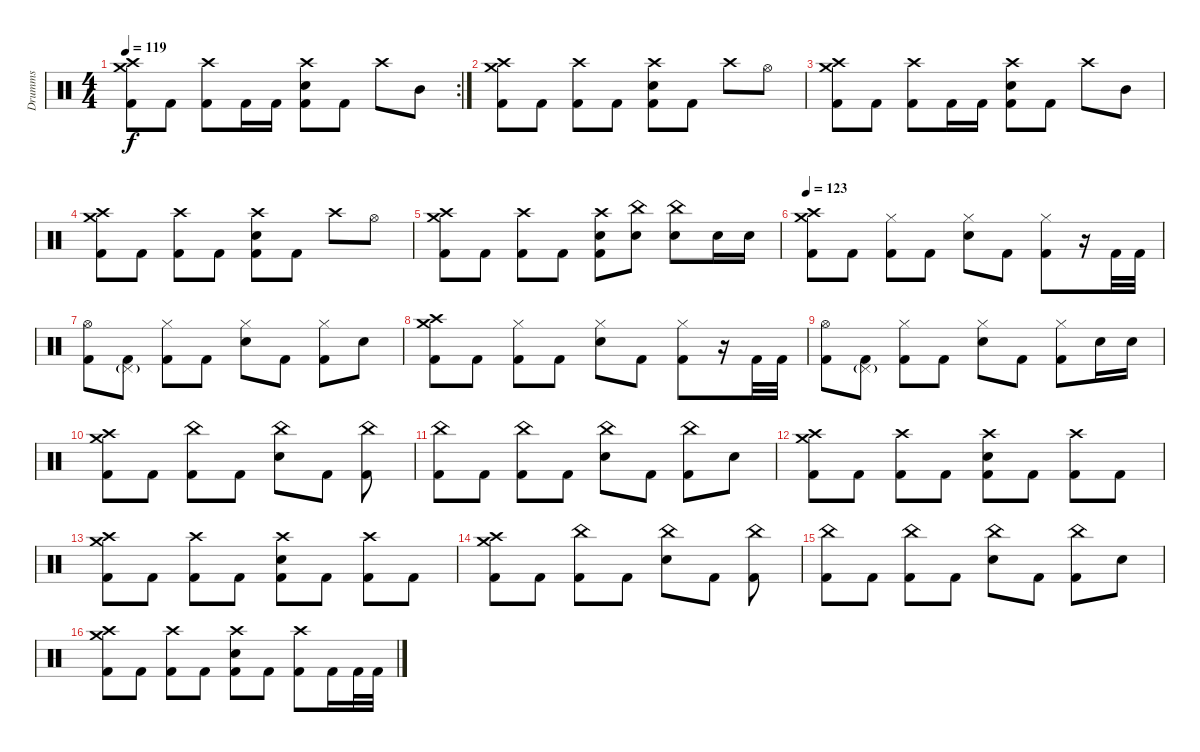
\track ("Drumms" "Drumms") {instrument percussion}
\staff {score}
\articulation defaults
\rc 2
\ts (4 4)
\tempo 119
\clef neutral
\ks c
("Crash high (hit)" "Crash medium (hit)" "Kick (hit) 2").8{dy f} "Kick (hit) 2".8 ("Crash high (hit)" "Kick (hit) 2").8 "Kick (hit) 2".16 "Kick (hit) 2".16 ("Crash high (hit)" "Electric Snare (hit)" "Kick (hit) 2").8 "Kick (hit) 2".8 "Crash high (hit)".8 "Mid Tom (hit)".8 |
("Crash high (hit)" "Crash medium (hit)" "Kick (hit) 2").8 "Kick (hit) 2".8 ("Crash high (hit)" "Kick (hit) 2").8 "Kick (hit) 2".8 ("Crash high (hit)" "Electric Snare (hit)" "Kick (hit) 2").8 "Kick (hit) 2".8 "Crash high (hit)".8 "Hi-Hat (open)".8 |
("Crash high (hit)" "Crash medium (hit)" "Kick (hit) 2").8 "Kick (hit) 2".8 ("Crash high (hit)" "Kick (hit) 2").8 "Kick (hit) 2".16 "Kick (hit) 2".16 ("Crash high (hit)" "Electric Snare (hit)" "Kick (hit) 2").8 "Kick (hit) 2".8 "Crash high (hit)".8 "Mid Tom (hit)".8 |
("Crash high (hit)" "Crash medium (hit)" "Kick (hit) 2").8 "Kick (hit) 2".8 ("Crash high (hit)" "Kick (hit) 2").8 "Kick (hit) 2".8 ("Crash high (hit)" "Electric Snare (hit)" "Kick (hit) 2").8 "Kick (hit) 2".8 "Crash high (hit)".8 "Hi-Hat (open)".8 |
("Crash high (hit)" "Crash medium (hit)" "Kick (hit) 2").8 "Kick (hit) 2".8 ("Crash high (hit)" "Kick (hit) 2").8 "Kick (hit) 2".8 ("Crash high (hit)" "Electric Snare (hit)" "Kick (hit) 2").8 ("China (hit)" "Electric Snare (hit)").8 ("China (hit)" "Electric Snare (hit)").8 "Electric Snare (hit)".16 "Electric Snare (hit)".16 |
\tempo 123
("Crash high (hit)" "Crash medium (hit)" "Kick (hit) 2").8 "Kick (hit) 2".8 ("Hi-Hat (closed)" "Kick (hit) 2").8 "Kick (hit) 2".8 ("Hi-Hat (closed)" "Electric Snare (hit)").8 "Kick (hit) 2".8 ("Hi-Hat (closed)" "Kick (hit) 2").8 r.16 "Kick (hit) 2".32 "Kick (hit) 2".32 |
("Hi-Hat (open)" "Kick (hit) 2").8 ("Pedal Hi-Hat (hit)"{g} "Kick (hit) 2").8 ("Hi-Hat (closed)" "Kick (hit) 2").8 "Kick (hit) 2".8 ("Hi-Hat (closed)" "Electric Snare (hit)").8 "Kick (hit) 2".8 ("Hi-Hat (closed)" "Kick (hit) 2").8 "Electric Snare (hit)".8 |
("Crash high (hit)" "Crash medium (hit)" "Kick (hit) 2").8 "Kick (hit) 2".8 ("Hi-Hat (closed)" "Kick (hit) 2").8 "Kick (hit) 2".8 ("Hi-Hat (closed)" "Electric Snare (hit)").8 "Kick (hit) 2".8 ("Hi-Hat (closed)" "Kick (hit) 2").8 r.16 "Kick (hit) 2".32 "Kick (hit) 2".32 |
("Hi-Hat (open)" "Kick (hit) 2").8 ("Pedal Hi-Hat (hit)"{g} "Kick (hit) 2").8 ("Hi-Hat (closed)" "Kick (hit) 2").8 "Kick (hit) 2".8 ("Hi-Hat (closed)" "Electric Snare (hit)").8 "Kick (hit) 2".8 ("Hi-Hat (closed)" "Kick (hit) 2").8 "Electric Snare (hit)".16 "Electric Snare (hit)".16 |
("Crash high (hit)" "Crash medium (hit)" "Kick (hit) 2").8 "Kick (hit) 2".8 ("China (hit)" "Kick (hit) 2").8 "Kick (hit) 2".8 ("China (hit)" "Electric Snare (hit)").8 "Kick (hit) 2".8 ("China (hit)" "Kick (hit) 2").8 |
("China (hit)" "Kick (hit) 2").8 "Kick (hit) 2".8 ("China (hit)" "Kick (hit) 2").8 "Kick (hit) 2".8 ("China (hit)" "Electric Snare (hit)").8 "Kick (hit) 2".8 ("China (hit)" "Kick (hit) 2").8 "Electric Snare (hit)".8 |
("Crash high (hit)" "Crash medium (hit)" "Kick (hit) 2").8 "Kick (hit) 2".8 ("Crash high (hit)" "Kick (hit) 2").8 "Kick (hit) 2".8 ("Crash high (hit)" "Electric Snare (hit)" "Kick (hit) 2").8 "Kick (hit) 2".8 ("Crash high (hit)" "Kick (hit) 2").8 "Kick (hit) 2".8 |
("Crash high (hit)" "Crash medium (hit)" "Kick (hit) 2").8 "Kick (hit) 2".8 ("Crash high (hit)" "Kick (hit) 2").8 "Kick (hit) 2".8 ("Crash high (hit)" "Electric Snare (hit)" "Kick (hit) 2").8 "Kick (hit) 2".8 ("Crash high (hit)" "Kick (hit) 2").8 "Kick (hit) 2".8 |
("Crash high (hit)" "Crash medium (hit)" "Kick (hit) 2").8 "Kick (hit) 2".8 ("China (hit)" "Kick (hit) 2").8 "Kick (hit) 2".8 ("China (hit)" "Electric Snare (hit)").8 "Kick (hit) 2".8 ("China (hit)" "Kick (hit) 2").8 |
("China (hit)" "Kick (hit) 2").8 "Kick (hit) 2".8 ("China (hit)" "Kick (hit) 2").8 "Kick (hit) 2".8 ("China (hit)" "Electric Snare (hit)").8 "Kick (hit) 2".8 ("China (hit)" "Kick (hit) 2").8 "Electric Snare (hit)".8 |
("Crash high (hit)" "Crash medium (hit)" "Kick (hit) 2").8 "Kick (hit) 2".8 ("Crash high (hit)" "Kick (hit) 2").8 "Kick (hit) 2".8 ("Crash high (hit)" "Electric Snare (hit)" "Kick (hit) 2").8 "Kick (hit) 2".8 ("Crash high (hit)" "Kick (hit) 2").8 "Kick (hit) 2".16 "Kick (hit) 2".32 "Kick (hit) 2".32
